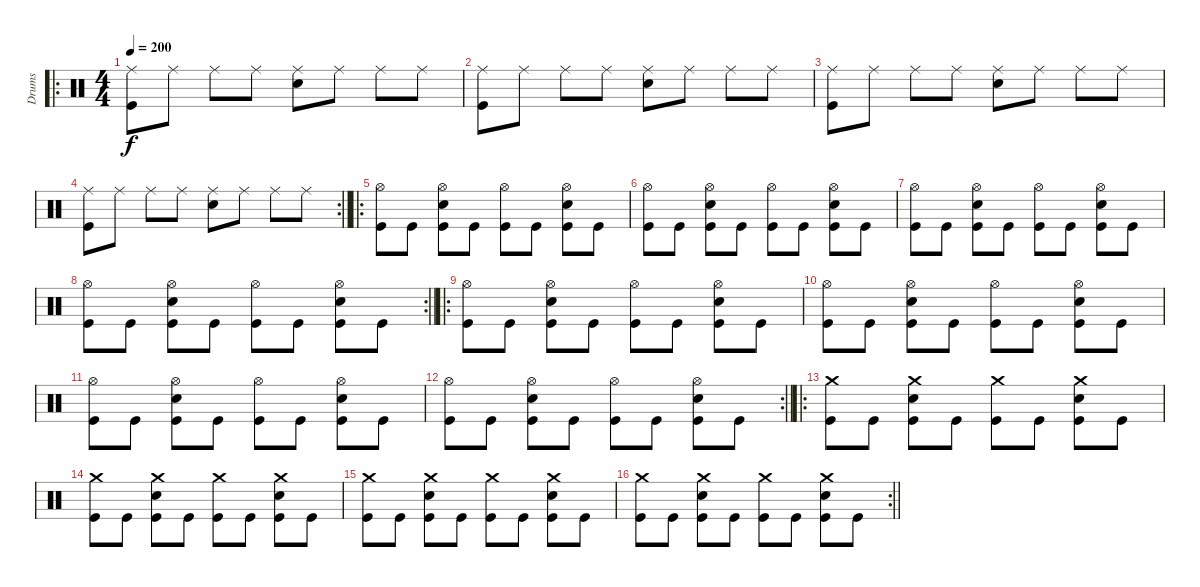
\track ("Drums" "Drums") {instrument percussion}
\staff {score}
\articulation defaults
\ro
\ts (4 4)
\tempo 200
\clef neutral
\ks c
("Ride (middle)" "Kick (hit)").8{dy f} "Ride (middle)".8 "Ride (middle)".8 "Ride (middle)".8 ("Ride (middle)" "Snare (hit) 2").8 "Ride (middle)".8 "Ride (middle)".8 "Ride (middle)".8 |
("Ride (middle)" "Kick (hit)").8 "Ride (middle)".8 "Ride (middle)".8 "Ride (middle)".8 ("Ride (middle)" "Snare (hit) 2").8 "Ride (middle)".8 "Ride (middle)".8 "Ride (middle)".8 |
("Ride (middle)" "Kick (hit)").8 "Ride (middle)".8 "Ride (middle)".8 "Ride (middle)".8 ("Ride (middle)" "Snare (hit) 2").8 "Ride (middle)".8 "Ride (middle)".8 "Ride (middle)".8 |
\rc 2
\barLineRight lightlight
("Ride (middle)" "Kick (hit)").8 "Ride (middle)".8 "Ride (middle)".8 "Ride (middle)".8 ("Ride (middle)" "Snare (hit) 2").8 "Ride (middle)".8 "Ride (middle)".8 "Ride (middle)".8 |
\ro
("Hi-Hat (open)" "Kick (hit)").8 "Kick (hit)".8 ("Hi-Hat (open)" "Snare (hit) 2" "Kick (hit)").8 "Kick (hit)".8 ("Hi-Hat (open)" "Kick (hit)").8 "Kick (hit)".8 ("Hi-Hat (open)" "Snare (hit) 2" "Kick (hit)").8 "Kick (hit)".8 |
("Hi-Hat (open)" "Kick (hit)").8 "Kick (hit)".8 ("Hi-Hat (open)" "Snare (hit) 2" "Kick (hit)").8 "Kick (hit)".8 ("Hi-Hat (open)" "Kick (hit)").8 "Kick (hit)".8 ("Hi-Hat (open)" "Snare (hit) 2" "Kick (hit)").8 "Kick (hit)".8 |
("Hi-Hat (open)" "Kick (hit)").8 "Kick (hit)".8 ("Hi-Hat (open)" "Snare (hit) 2" "Kick (hit)").8 "Kick (hit)".8 ("Hi-Hat (open)" "Kick (hit)").8 "Kick (hit)".8 ("Hi-Hat (open)" "Snare (hit) 2" "Kick (hit)").8 "Kick (hit)".8 |
\rc 2
\barLineRight lightlight
("Hi-Hat (open)" "Kick (hit)").8 "Kick (hit)".8 ("Hi-Hat (open)" "Snare (hit) 2" "Kick (hit)").8 "Kick (hit)".8 ("Hi-Hat (open)" "Kick (hit)").8 "Kick (hit)".8 ("Hi-Hat (open)" "Snare (hit) 2" "Kick (hit)").8 "Kick (hit)".8 |
\ro
("Hi-Hat (open)" "Kick (hit)").8 "Kick (hit)".8 ("Hi-Hat (open)" "Snare (hit) 2" "Kick (hit)").8 "Kick (hit)".8 ("Hi-Hat (open)" "Kick (hit)").8 "Kick (hit)".8 ("Hi-Hat (open)" "Snare (hit) 2" "Kick (hit)").8 "Kick (hit)".8 |
("Hi-Hat (open)" "Kick (hit)").8 "Kick (hit)".8 ("Hi-Hat (open)" "Snare (hit) 2" "Kick (hit)").8 "Kick (hit)".8 ("Hi-Hat (open)" "Kick (hit)").8 "Kick (hit)".8 ("Hi-Hat (open)" "Snare (hit) 2" "Kick (hit)").8 "Kick (hit)".8 |
("Hi-Hat (open)" "Kick (hit)").8 "Kick (hit)".8 ("Hi-Hat (open)" "Snare (hit) 2" "Kick (hit)").8 "Kick (hit)".8 ("Hi-Hat (open)" "Kick (hit)").8 "Kick (hit)".8 ("Hi-Hat (open)" "Snare (hit) 2" "Kick (hit)").8 "Kick (hit)".8 |
\rc 2
\barLineRight lightlight
("Hi-Hat (open)" "Kick (hit)").8 "Kick (hit)".8 ("Hi-Hat (open)" "Snare (hit) 2" "Kick (hit)").8 "Kick (hit)".8 ("Hi-Hat (open)" "Kick (hit)").8 "Kick (hit)".8 ("Hi-Hat (open)" "Snare (hit) 2" "Kick (hit)").8 "Kick (hit)".8 |
\ro
("Crash medium (hit)" "Kick (hit)").8 "Kick (hit)".8 ("Crash medium (hit)" "Snare (hit) 2" "Kick (hit)").8 "Kick (hit)".8 ("Crash medium (hit)" "Kick (hit)").8 "Kick (hit)".8 ("Crash medium (hit)" "Snare (hit) 2" "Kick (hit)").8 "Kick (hit)".8 |
("Crash medium (hit)" "Kick (hit)").8 "Kick (hit)".8 ("Crash medium (hit)" "Snare (hit) 2" "Kick (hit)").8 "Kick (hit)".8 ("Crash medium (hit)" "Kick (hit)").8 "Kick (hit)".8 ("Crash medium (hit)" "Snare (hit) 2" "Kick (hit)").8 "Kick (hit)".8 |
("Crash medium (hit)" "Kick (hit)").8 "Kick (hit)".8 ("Crash medium (hit)" "Snare (hit) 2" "Kick (hit)").8 "Kick (hit)".8 ("Crash medium (hit)" "Kick (hit)").8 "Kick (hit)".8 ("Crash medium (hit)" "Snare (hit) 2" "Kick (hit)").8 "Kick (hit)".8 |
\rc 2
\barLineRight lightlight
("Crash medium (hit)" "Kick (hit)").8 "Kick (hit)".8 ("Crash medium (hit)" "Snare (hit) 2" "Kick (hit)").8 "Kick (hit)".8 ("Crash medium (hit)" "Kick (hit)").8 "Kick (hit)".8 ("Crash medium (hit)" "Snare (hit) 2" "Kick (hit)").8 "Kick (hit)".8
